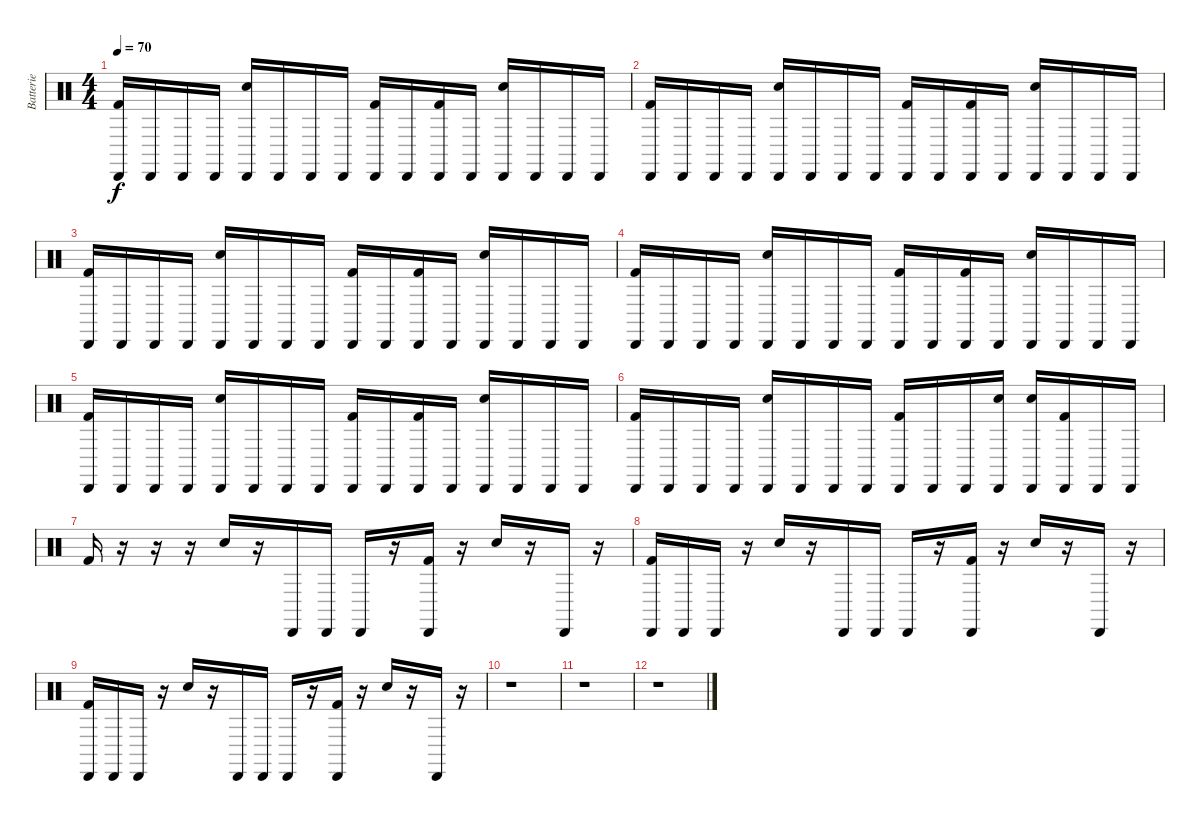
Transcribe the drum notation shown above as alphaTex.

\track ("Batterie" "Batterie") {instrument percussion}
\staff {score}
\articulation defaults
\ts (4 4)
\tempo 70
\clef neutral
\ks c
("Cabasa (hit)" "Kick (hit) 2").16{dy f} "Cabasa (hit)".16 "Cabasa (hit)".16 "Cabasa (hit)".16 ("Cabasa (hit)" "Snare (hit) 2").16 "Cabasa (hit)".16 "Cabasa (hit)".16 "Cabasa (hit)".16 ("Cabasa (hit)" "Kick (hit) 2").16 "Cabasa (hit)".16 ("Cabasa (hit)" "Kick (hit) 2").16 "Cabasa (hit)".16 ("Cabasa (hit)" "Snare (hit) 2").16 "Cabasa (hit)".16 "Cabasa (hit)".16 "Cabasa (hit)".16 |
("Cabasa (hit)" "Kick (hit) 2").16 "Cabasa (hit)".16 "Cabasa (hit)".16 "Cabasa (hit)".16 ("Cabasa (hit)" "Snare (hit) 2").16 "Cabasa (hit)".16 "Cabasa (hit)".16 "Cabasa (hit)".16 ("Cabasa (hit)" "Kick (hit) 2").16 "Cabasa (hit)".16 ("Cabasa (hit)" "Kick (hit) 2").16 "Cabasa (hit)".16 ("Cabasa (hit)" "Snare (hit) 2").16 "Cabasa (hit)".16 "Cabasa (hit)".16 "Cabasa (hit)".16 |
("Cabasa (hit)" "Kick (hit) 2").16 "Cabasa (hit)".16 "Cabasa (hit)".16 "Cabasa (hit)".16 ("Cabasa (hit)" "Snare (hit) 2").16 "Cabasa (hit)".16 "Cabasa (hit)".16 "Cabasa (hit)".16 ("Cabasa (hit)" "Kick (hit) 2").16 "Cabasa (hit)".16 ("Cabasa (hit)" "Kick (hit) 2").16 "Cabasa (hit)".16 ("Cabasa (hit)" "Snare (hit) 2").16 "Cabasa (hit)".16 "Cabasa (hit)".16 "Cabasa (hit)".16 |
("Cabasa (hit)" "Kick (hit) 2").16 "Cabasa (hit)".16 "Cabasa (hit)".16 "Cabasa (hit)".16 ("Cabasa (hit)" "Snare (hit) 2").16 "Cabasa (hit)".16 "Cabasa (hit)".16 "Cabasa (hit)".16 ("Cabasa (hit)" "Kick (hit) 2").16 "Cabasa (hit)".16 ("Cabasa (hit)" "Kick (hit) 2").16 "Cabasa (hit)".16 ("Cabasa (hit)" "Snare (hit) 2").16 "Cabasa (hit)".16 "Cabasa (hit)".16 "Cabasa (hit)".16 |
("Cabasa (hit)" "Kick (hit) 2").16 "Cabasa (hit)".16 "Cabasa (hit)".16 "Cabasa (hit)".16 ("Cabasa (hit)" "Snare (hit) 2").16 "Cabasa (hit)".16 "Cabasa (hit)".16 "Cabasa (hit)".16 ("Cabasa (hit)" "Kick (hit) 2").16 "Cabasa (hit)".16 ("Cabasa (hit)" "Kick (hit) 2").16 "Cabasa (hit)".16 ("Cabasa (hit)" "Snare (hit) 2").16 "Cabasa (hit)".16 "Cabasa (hit)".16 "Cabasa (hit)".16 |
("Cabasa (hit)" "Kick (hit) 2").16 "Cabasa (hit)".16 "Cabasa (hit)".16 "Cabasa (hit)".16 ("Cabasa (hit)" "Snare (hit) 2").16 "Cabasa (hit)".16 "Cabasa (hit)".16 "Cabasa (hit)".16 ("Cabasa (hit)" "Kick (hit) 2").16 "Cabasa (hit)".16 "Cabasa (hit)".16 ("Cabasa (hit)" "Snare (hit) 2").16 ("Cabasa (hit)" "Snare (hit) 2").16 ("Cabasa (hit)" "Kick (hit) 2").16 "Cabasa (hit)".16 "Cabasa (hit)".16 |
"Kick (hit) 2".16 r.16 r.16 r.16 "Snare (hit) 2".16 r.16 "Cabasa (hit)".16 "Cabasa (hit)".16 "Cabasa (hit)".16 r.16 ("Cabasa (hit)" "Kick (hit) 2").16 r.16 "Snare (hit) 2".16 r.16 "Cabasa (hit)".16 r.16 |
("Cabasa (hit)" "Kick (hit) 2").16 "Cabasa (hit)".16 "Cabasa (hit)".16 r.16 "Snare (hit) 2".16 r.16 "Cabasa (hit)".16 "Cabasa (hit)".16 "Cabasa (hit)".16 r.16 ("Cabasa (hit)" "Kick (hit) 2").16 r.16 "Snare (hit) 2".16 r.16 "Cabasa (hit)".16 r.16 |
("Cabasa (hit)" "Kick (hit) 2").16 "Cabasa (hit)".16 "Cabasa (hit)".16 r.16 "Snare (hit) 2".16 r.16 "Cabasa (hit)".16 "Cabasa (hit)".16 "Cabasa (hit)".16 r.16 ("Cabasa (hit)" "Kick (hit) 2").16 r.16 "Snare (hit) 2".16 r.16 "Cabasa (hit)".16 r.16 |
r.1 |
r.1 |
r.1
